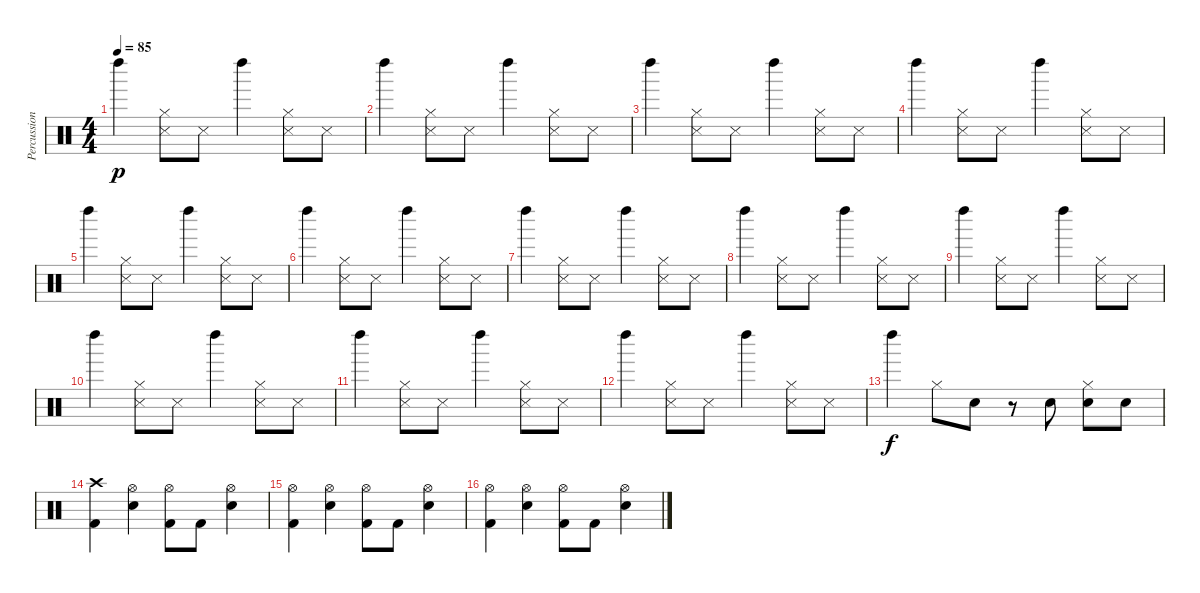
\track ("Percussion" "Percussion") {instrument percussion}
\staff {score}
\articulation defaults
\ts (4 4)
\tempo 85
\clef neutral
\ks c "Left Maraca (hit)".4{dy p}
("Hi-Hat (closed)" "Metronome (hit)").8 "Metronome (hit)".8 "Left Maraca (hit)".4 ("Hi-Hat (closed)" "Metronome (hit)").8 "Metronome (hit)".8 |
"Left Maraca (hit)".4 ("Hi-Hat (closed)" "Metronome (hit)").8 "Metronome (hit)".8 "Left Maraca (hit)".4 ("Hi-Hat (closed)" "Metronome (hit)").8 "Metronome (hit)".8 |
"Left Maraca (hit)".4 ("Hi-Hat (closed)" "Metronome (hit)").8 "Metronome (hit)".8 "Left Maraca (hit)".4 ("Hi-Hat (closed)" "Metronome (hit)").8 "Metronome (hit)".8 |
"Left Maraca (hit)".4 ("Hi-Hat (closed)" "Metronome (hit)").8 "Metronome (hit)".8 "Left Maraca (hit)".4 ("Hi-Hat (closed)" "Metronome (hit)").8 "Metronome (hit)".8 |
"Left Maraca (hit)".4 ("Hi-Hat (closed)" "Metronome (hit)").8 "Metronome (hit)".8 "Left Maraca (hit)".4 ("Hi-Hat (closed)" "Metronome (hit)").8 "Metronome (hit)".8 |
"Left Maraca (hit)".4 ("Hi-Hat (closed)" "Metronome (hit)").8 "Metronome (hit)".8 "Left Maraca (hit)".4 ("Hi-Hat (closed)" "Metronome (hit)").8 "Metronome (hit)".8 |
"Left Maraca (hit)".4 ("Hi-Hat (closed)" "Metronome (hit)").8 "Metronome (hit)".8 "Left Maraca (hit)".4 ("Hi-Hat (closed)" "Metronome (hit)").8 "Metronome (hit)".8 |
"Left Maraca (hit)".4 ("Hi-Hat (closed)" "Metronome (hit)").8 "Metronome (hit)".8 "Left Maraca (hit)".4 ("Hi-Hat (closed)" "Metronome (hit)").8 "Metronome (hit)".8 |
"Left Maraca (hit)".4 ("Hi-Hat (closed)" "Metronome (hit)").8 "Metronome (hit)".8 "Left Maraca (hit)".4 ("Hi-Hat (closed)" "Metronome (hit)").8 "Metronome (hit)".8 |
"Left Maraca (hit)".4 ("Hi-Hat (closed)" "Metronome (hit)").8 "Metronome (hit)".8 "Left Maraca (hit)".4 ("Hi-Hat (closed)" "Metronome (hit)").8 "Metronome (hit)".8 |
"Left Maraca (hit)".4 ("Hi-Hat (closed)" "Metronome (hit)").8 "Metronome (hit)".8 "Left Maraca (hit)".4 ("Hi-Hat (closed)" "Metronome (hit)").8 "Metronome (hit)".8 |
"Left Maraca (hit)".4 ("Hi-Hat (closed)" "Metronome (hit)").8 "Metronome (hit)".8 "Left Maraca (hit)".4 ("Hi-Hat (closed)" "Metronome (hit)").8 "Metronome (hit)".8 |
"Left Maraca (hit)".4{dy f} "Hi-Hat (closed)".8 "Snare (hit) 2".8 r.8 "Snare (hit) 2".8 ("Hi-Hat (closed)" "Snare (hit) 2").8 "Snare (hit) 2".8 |
("Crash high (hit)" "Kick (hit) 2").4 ("Hi-Hat (open)" "Snare (hit) 2").4 ("Hi-Hat (open)" "Kick (hit) 2").8 "Kick (hit) 2".8 ("Hi-Hat (open)" "Snare (hit) 2").4 |
("Hi-Hat (open)" "Kick (hit) 2").4 ("Hi-Hat (open)" "Snare (hit) 2").4 ("Hi-Hat (open)" "Kick (hit) 2").8 "Kick (hit) 2".8 ("Hi-Hat (open)" "Snare (hit) 2").4 |
("Hi-Hat (open)" "Kick (hit) 2").4 ("Hi-Hat (open)" "Snare (hit) 2").4 ("Hi-Hat (open)" "Kick (hit) 2").8 "Kick (hit) 2".8 ("Hi-Hat (open)" "Snare (hit) 2").4
